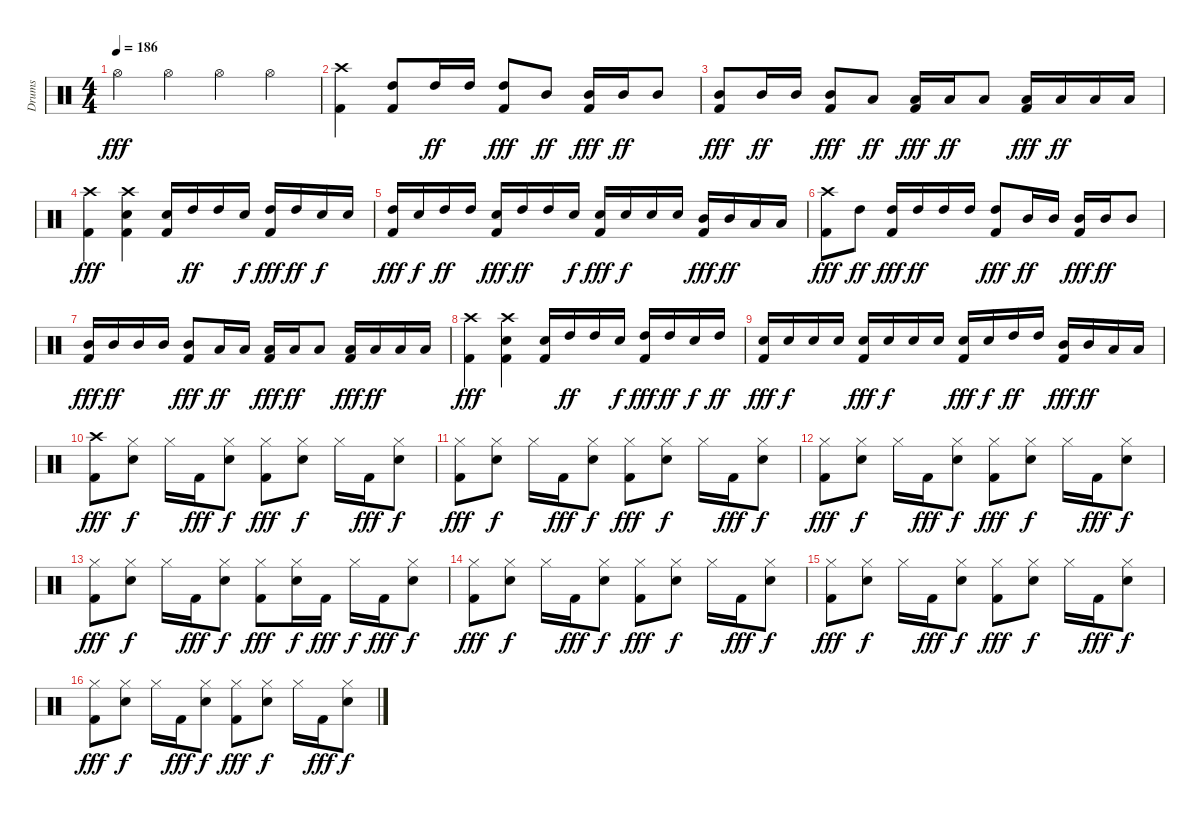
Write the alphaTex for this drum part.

\track ("Drums" "Drums") {instrument percussion}
\staff {score}
\articulation defaults
\ts (4 4)
\tempo 186
\clef neutral
\ks c "Hi-Hat (open)".4{dy fff} "Hi-Hat (open)".4 "Hi-Hat (open)".4 "Hi-Hat (open)".4
|
("Crash high (hit)" "Kick (hit) 2").4 ("High Tom (hit)" "Kick (hit) 2").8 "High Tom (hit)".16{dy ff} "High Tom (hit)".16 ("High Tom (hit)" "Kick (hit) 2").8{dy fff} "Mid Tom (hit)".8{dy ff} ("Mid Tom (hit)" "Kick (hit) 2").16{dy fff} "Mid Tom (hit)".16{dy ff} "Mid Tom (hit)".8 |
("Mid Tom (hit)" "Kick (hit) 2").8{dy fff} "Mid Tom (hit)".16{dy ff} "Mid Tom (hit)".16 ("Mid Tom (hit)" "Kick (hit) 2").8{dy fff} "Low Tom (hit)".8{dy ff} ("Low Tom (hit)" "Kick (hit) 2").16{dy fff} "Low Tom (hit)".16{dy ff} "Low Tom (hit)".8 ("Low Tom (hit)" "Kick (hit) 2").16{dy fff} "Low Tom (hit)".16{dy ff} "Low Tom (hit)".16 "Low Tom (hit)".16 |
("Crash high (hit)" "Kick (hit) 2").4{dy fff} ("Crash high (hit)" "Electric Snare (hit)" "Kick (hit) 2").4 ("Electric Snare (hit)" "Kick (hit) 2").16 "High Tom (hit)".16{dy ff} "High Tom (hit)".16 "Electric Snare (hit)".16{dy f} ("High Tom (hit)" "Kick (hit) 2").16{dy fff} "High Tom (hit)".16{dy ff} "Electric Snare (hit)".16{dy f} "Electric Snare (hit)".16 |
("High Tom (hit)" "Kick (hit) 2").16{dy fff} "Electric Snare (hit)".16{dy f} "High Tom (hit)".16{dy ff} "High Tom (hit)".16 ("Electric Snare (hit)" "Kick (hit) 2").16{dy fff} "High Tom (hit)".16{dy ff} "High Tom (hit)".16 "Electric Snare (hit)".16{dy f} ("Electric Snare (hit)" "Kick (hit) 2").16{dy fff} "Electric Snare (hit)".16{dy f} "Electric Snare (hit)".16 "Electric Snare (hit)".16 ("Mid Tom (hit)" "Kick (hit) 2").16{dy fff} "Mid Tom (hit)".16{dy ff} "Low Floor Tom (hit)".16 "Low Floor Tom (hit)".16 |
("Crash high (hit)" "Kick (hit) 2").8{dy fff} "High Tom (hit)".8{dy ff} ("High Tom (hit)" "Kick (hit) 2").16{dy fff} "High Tom (hit)".16{dy ff} "High Tom (hit)".16 "High Tom (hit)".16 ("High Tom (hit)" "Kick (hit) 2").8{dy fff} "Mid Tom (hit)".16{dy ff} "Mid Tom (hit)".16 ("Mid Tom (hit)" "Kick (hit) 2").16{dy fff} "Mid Tom (hit)".16{dy ff} "Mid Tom (hit)".8 |
("Mid Tom (hit)" "Kick (hit) 2").16{dy fff} "Mid Tom (hit)".16{dy ff} "Mid Tom (hit)".16 "Mid Tom (hit)".16 ("Mid Tom (hit)" "Kick (hit) 2").8{dy fff} "Low Floor Tom (hit)".16{dy ff} "Low Floor Tom (hit)".16 ("Low Floor Tom (hit)" "Kick (hit) 2").16{dy fff} "Low Floor Tom (hit)".16{dy ff} "Low Floor Tom (hit)".8 ("Low Floor Tom (hit)" "Kick (hit) 2").16{dy fff} "Low Floor Tom (hit)".16{dy ff} "Low Floor Tom (hit)".16 "Low Floor Tom (hit)".16 |
("Crash high (hit)" "Kick (hit) 2").4{dy fff} ("Crash high (hit)" "Electric Snare (hit)" "Kick (hit) 2").4 ("Electric Snare (hit)" "Kick (hit) 2").16 "High Tom (hit)".16{dy ff} "High Tom (hit)".16 "Electric Snare (hit)".16{dy f} ("High Tom (hit)" "Kick (hit) 2").16{dy fff} "High Tom (hit)".16{dy ff} "Electric Snare (hit)".16{dy f} "High Tom (hit)".16{dy ff} |
("Electric Snare (hit)" "Kick (hit) 2").16{dy fff} "Electric Snare (hit)".16{dy f} "Electric Snare (hit)".16 "Electric Snare (hit)".16 ("Electric Snare (hit)" "Kick (hit) 2").16{dy fff} "Electric Snare (hit)".16{dy f} "Electric Snare (hit)".16 "Electric Snare (hit)".16 ("Electric Snare (hit)" "Kick (hit) 2").16{dy fff} "Electric Snare (hit)".16{dy f} "High Tom (hit)".16{dy ff} "High Tom (hit)".16 ("Mid Tom (hit)" "Kick (hit) 2").16{dy fff} "Mid Tom (hit)".16{dy ff} "Low Floor Tom (hit)".16 "Low Floor Tom (hit)".16 |
("Crash high (hit)" "Kick (hit) 2").8{dy fff} ("Hi-Hat (closed)" "Electric Snare (hit)").8{dy f} "Hi-Hat (closed)".16 "Kick (hit) 2".16{dy fff} ("Hi-Hat (closed)" "Electric Snare (hit)").8{dy f} ("Hi-Hat (closed)" "Kick (hit) 2").8{dy fff} ("Hi-Hat (closed)" "Electric Snare (hit)").8{dy f} "Hi-Hat (closed)".16 "Kick (hit) 2".16{dy fff} ("Hi-Hat (closed)" "Electric Snare (hit)").8{dy f} |
("Hi-Hat (closed)" "Kick (hit) 2").8{dy fff} ("Hi-Hat (closed)" "Electric Snare (hit)").8{dy f} "Hi-Hat (closed)".16 "Kick (hit) 2".16{dy fff} ("Hi-Hat (closed)" "Electric Snare (hit)").8{dy f} ("Hi-Hat (closed)" "Kick (hit) 2").8{dy fff} ("Hi-Hat (closed)" "Electric Snare (hit)").8{dy f} "Hi-Hat (closed)".16 "Kick (hit) 2".16{dy fff} ("Hi-Hat (closed)" "Electric Snare (hit)").8{dy f} |
("Hi-Hat (closed)" "Kick (hit) 2").8{dy fff} ("Hi-Hat (closed)" "Electric Snare (hit)").8{dy f} "Hi-Hat (closed)".16 "Kick (hit) 2".16{dy fff} ("Hi-Hat (closed)" "Electric Snare (hit)").8{dy f} ("Hi-Hat (closed)" "Kick (hit) 2").8{dy fff} ("Hi-Hat (closed)" "Electric Snare (hit)").8{dy f} "Hi-Hat (closed)".16 "Kick (hit) 2".16{dy fff} ("Hi-Hat (closed)" "Electric Snare (hit)").8{dy f} |
("Hi-Hat (closed)" "Kick (hit) 2").8{dy fff} ("Hi-Hat (closed)" "Electric Snare (hit)").8{dy f} "Hi-Hat (closed)".16 "Kick (hit) 2".16{dy fff} ("Hi-Hat (closed)" "Electric Snare (hit)").8{dy f} ("Hi-Hat (closed)" "Kick (hit) 2").8{dy fff} ("Hi-Hat (closed)" "Electric Snare (hit)").16{dy f} "Kick (hit) 2".16{dy fff} "Hi-Hat (closed)".16{dy f} "Kick (hit) 2".16{dy fff} ("Hi-Hat (closed)" "Electric Snare (hit)").8{dy f} |
("Hi-Hat (closed)" "Kick (hit) 2").8{dy fff} ("Hi-Hat (closed)" "Electric Snare (hit)").8{dy f} "Hi-Hat (closed)".16 "Kick (hit) 2".16{dy fff} ("Hi-Hat (closed)" "Electric Snare (hit)").8{dy f} ("Hi-Hat (closed)" "Kick (hit) 2").8{dy fff} ("Hi-Hat (closed)" "Electric Snare (hit)").8{dy f} "Hi-Hat (closed)".16 "Kick (hit) 2".16{dy fff} ("Hi-Hat (closed)" "Electric Snare (hit)").8{dy f} |
("Hi-Hat (closed)" "Kick (hit) 2").8{dy fff} ("Hi-Hat (closed)" "Electric Snare (hit)").8{dy f} "Hi-Hat (closed)".16 "Kick (hit) 2".16{dy fff} ("Hi-Hat (closed)" "Electric Snare (hit)").8{dy f} ("Hi-Hat (closed)" "Kick (hit) 2").8{dy fff} ("Hi-Hat (closed)" "Electric Snare (hit)").8{dy f} "Hi-Hat (closed)".16 "Kick (hit) 2".16{dy fff} ("Hi-Hat (closed)" "Electric Snare (hit)").8{dy f} |
("Hi-Hat (closed)" "Kick (hit) 2").8{dy fff} ("Hi-Hat (closed)" "Electric Snare (hit)").8{dy f} "Hi-Hat (closed)".16 "Kick (hit) 2".16{dy fff} ("Hi-Hat (closed)" "Electric Snare (hit)").8{dy f} ("Hi-Hat (closed)" "Kick (hit) 2").8{dy fff} ("Hi-Hat (closed)" "Electric Snare (hit)").8{dy f} "Hi-Hat (closed)".16 "Kick (hit) 2".16{dy fff} ("Hi-Hat (closed)" "Electric Snare (hit)").8{dy f}
